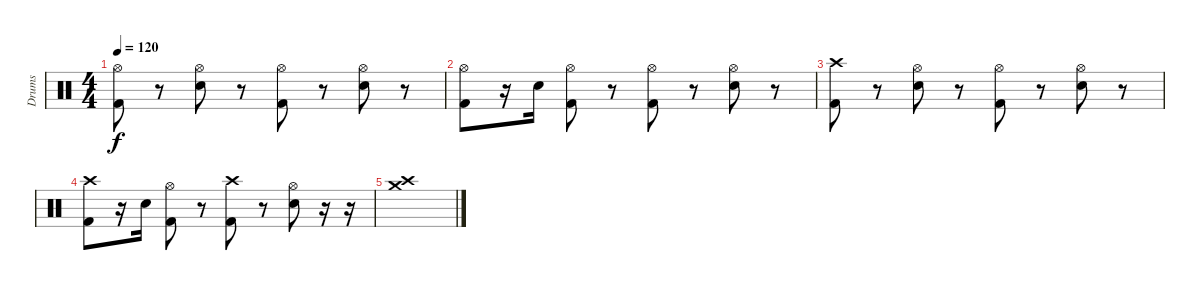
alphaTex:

\track ("Drums" "Drums") {instrument percussion}
\staff {score}
\articulation defaults
\ts (4 4)
\tempo 120
\clef neutral
\ks c
("Hi-Hat (open)" "Kick (hit) 2").8{dy f} r.8 ("Hi-Hat (open)" "Electric Snare (hit)").8 r.8 ("Hi-Hat (open)" "Kick (hit) 2").8 r.8 ("Hi-Hat (open)" "Electric Snare (hit)").8 r.8 |
("Hi-Hat (open)" "Kick (hit) 2").8 r.16 "Electric Snare (hit)".16 ("Hi-Hat (open)" "Kick (hit) 2").8 r.8 ("Hi-Hat (open)" "Kick (hit) 2").8 r.8 ("Hi-Hat (open)" "Electric Snare (hit)").8 r.8 |
("Crash high (hit)" "Kick (hit) 2").8 r.8 ("Hi-Hat (open)" "Electric Snare (hit)").8 r.8 ("Hi-Hat (open)" "Kick (hit) 2").8 r.8 ("Hi-Hat (open)" "Electric Snare (hit)").8 r.8 |
("Crash high (hit)" "Kick (hit) 2").8 r.16 "Electric Snare (hit)".16 ("Hi-Hat (open)" "Kick (hit) 2").8 r.8 ("Crash high (hit)" "Kick (hit) 2").8 r.8 ("Hi-Hat (open)" "Electric Snare (hit)").8 r.16 r.16 |
("Crash medium (hit)" "Crash high (hit)").1
